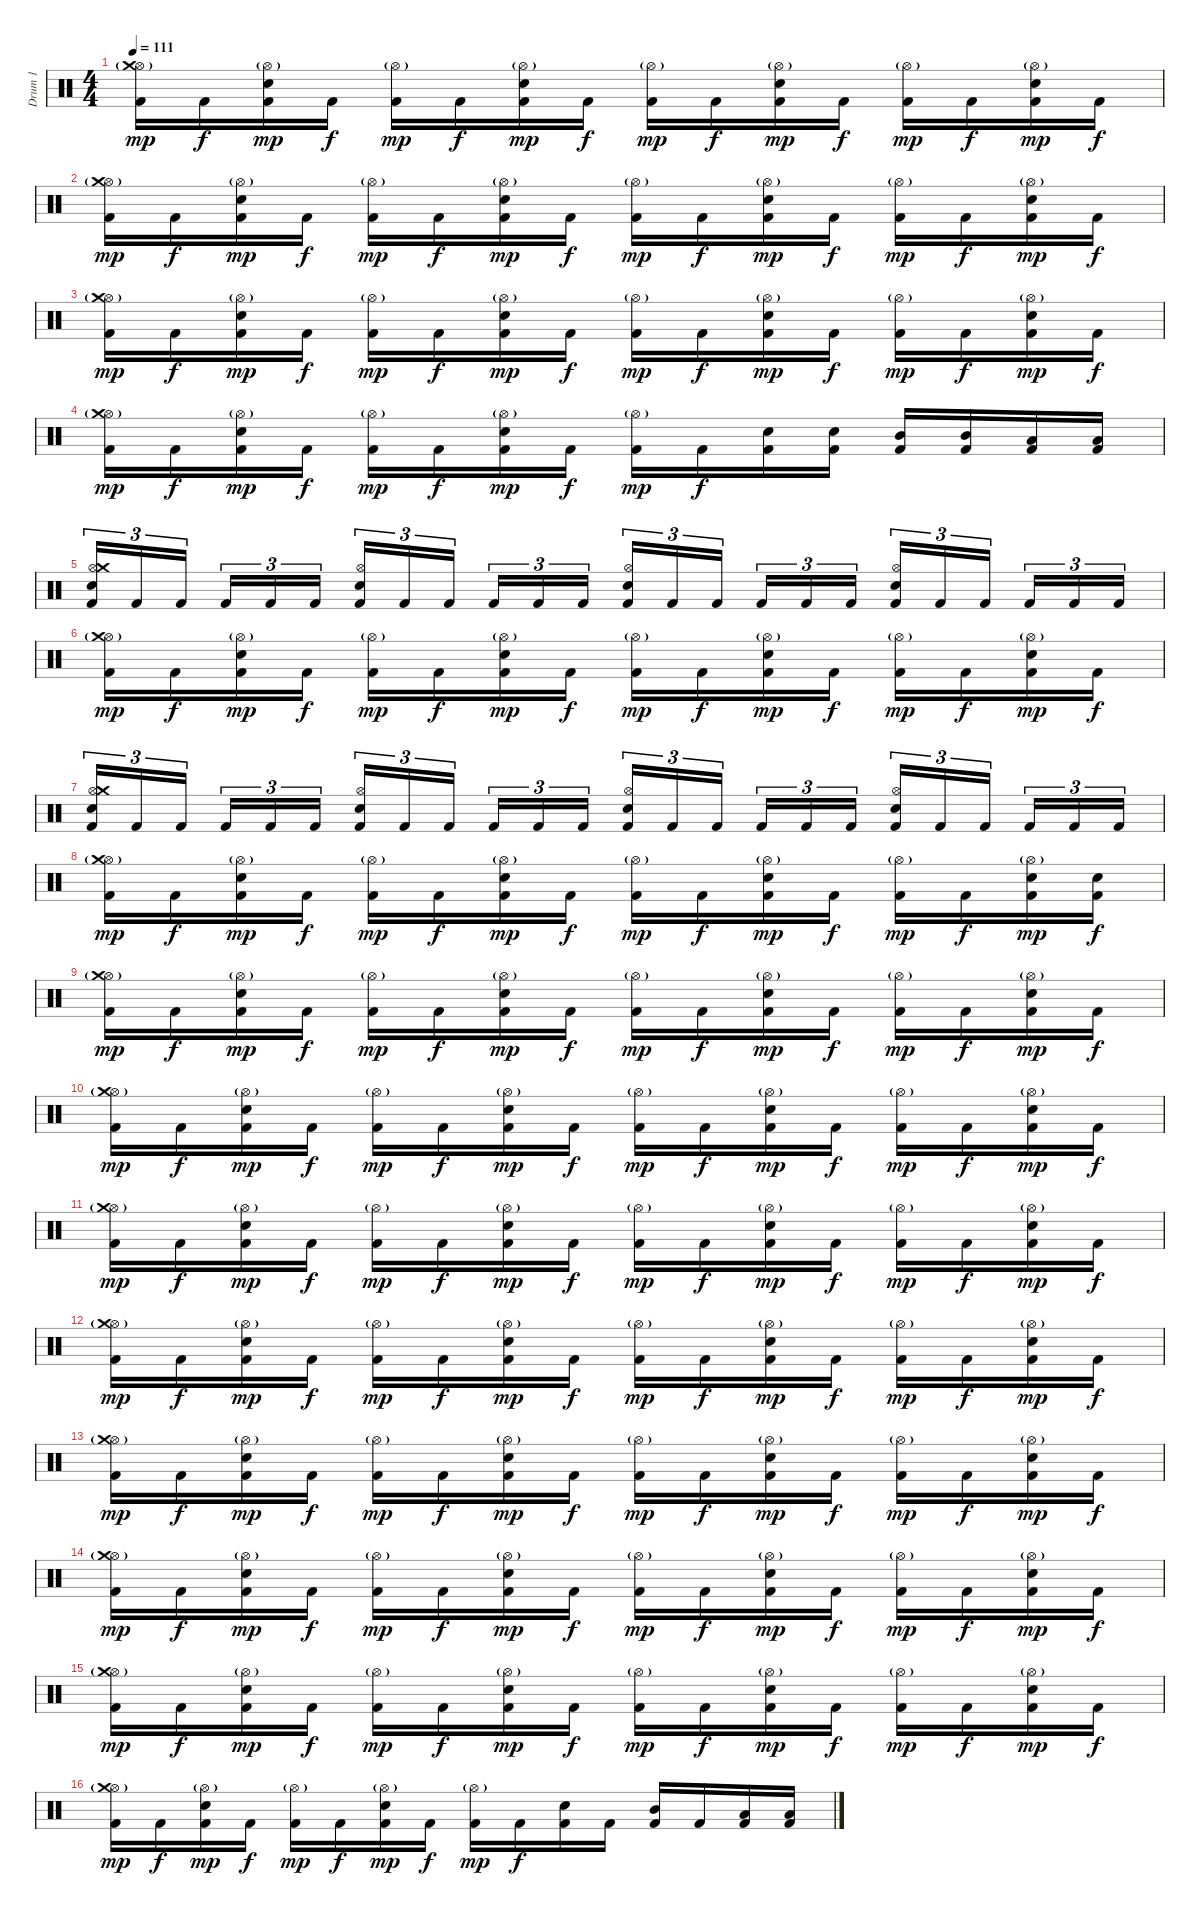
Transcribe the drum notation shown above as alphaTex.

\track ("Drum 1" "Drum 1") {instrument percussion}
\staff {score}
\articulation defaults
\ts (4 4)
\tempo 111
\clef neutral
\ks c
("Kick (hit) 2" "Hi-Hat (open)"{g} "Crash medium (hit)").16{dy mp} "Kick (hit) 2".16{dy f} ("Kick (hit) 2" "Hi-Hat (open)"{g} "Electric Snare (hit)").16{dy mp} "Kick (hit) 2".16{dy f} ("Kick (hit) 2" "Hi-Hat (open)"{g}).16{dy mp} "Kick (hit) 2".16{dy f} ("Kick (hit) 2" "Hi-Hat (open)"{g} "Electric Snare (hit)").16{dy mp} "Kick (hit) 2".16{dy f} ("Kick (hit) 2" "Hi-Hat (open)"{g}).16{dy mp} "Kick (hit) 2".16{dy f} ("Kick (hit) 2" "Hi-Hat (open)"{g} "Electric Snare (hit)").16{dy mp} "Kick (hit) 2".16{dy f} ("Kick (hit) 2" "Hi-Hat (open)"{g}).16{dy mp} "Kick (hit) 2".16{dy f} ("Kick (hit) 2" "Hi-Hat (open)"{g} "Electric Snare (hit)").16{dy mp} "Kick (hit) 2".16{dy f} |
("Kick (hit) 2" "Hi-Hat (open)"{g} "Crash medium (hit)").16{dy mp} "Kick (hit) 2".16{dy f} ("Kick (hit) 2" "Hi-Hat (open)"{g} "Electric Snare (hit)").16{dy mp} "Kick (hit) 2".16{dy f} ("Kick (hit) 2" "Hi-Hat (open)"{g}).16{dy mp} "Kick (hit) 2".16{dy f} ("Kick (hit) 2" "Hi-Hat (open)"{g} "Electric Snare (hit)").16{dy mp} "Kick (hit) 2".16{dy f} ("Kick (hit) 2" "Hi-Hat (open)"{g}).16{dy mp} "Kick (hit) 2".16{dy f} ("Kick (hit) 2" "Hi-Hat (open)"{g} "Electric Snare (hit)").16{dy mp} "Kick (hit) 2".16{dy f} ("Kick (hit) 2" "Hi-Hat (open)"{g}).16{dy mp} "Kick (hit) 2".16{dy f} ("Kick (hit) 2" "Hi-Hat (open)"{g} "Electric Snare (hit)").16{dy mp} "Kick (hit) 2".16{dy f} |
("Kick (hit) 2" "Hi-Hat (open)"{g} "Crash medium (hit)").16{dy mp} "Kick (hit) 2".16{dy f} ("Kick (hit) 2" "Hi-Hat (open)"{g} "Electric Snare (hit)").16{dy mp} "Kick (hit) 2".16{dy f} ("Kick (hit) 2" "Hi-Hat (open)"{g}).16{dy mp} "Kick (hit) 2".16{dy f} ("Kick (hit) 2" "Hi-Hat (open)"{g} "Electric Snare (hit)").16{dy mp} "Kick (hit) 2".16{dy f} ("Kick (hit) 2" "Hi-Hat (open)"{g}).16{dy mp} "Kick (hit) 2".16{dy f} ("Kick (hit) 2" "Hi-Hat (open)"{g} "Electric Snare (hit)").16{dy mp} "Kick (hit) 2".16{dy f} ("Kick (hit) 2" "Hi-Hat (open)"{g}).16{dy mp} "Kick (hit) 2".16{dy f} ("Kick (hit) 2" "Hi-Hat (open)"{g} "Electric Snare (hit)").16{dy mp} "Kick (hit) 2".16{dy f} |
("Kick (hit) 2" "Hi-Hat (open)"{g} "Crash medium (hit)").16{dy mp} "Kick (hit) 2".16{dy f} ("Kick (hit) 2" "Hi-Hat (open)"{g} "Electric Snare (hit)").16{dy mp} "Kick (hit) 2".16{dy f} ("Kick (hit) 2" "Hi-Hat (open)"{g}).16{dy mp} "Kick (hit) 2".16{dy f} ("Kick (hit) 2" "Hi-Hat (open)"{g} "Electric Snare (hit)").16{dy mp} "Kick (hit) 2".16{dy f} ("Kick (hit) 2" "Hi-Hat (open)"{g}).16{dy mp} "Kick (hit) 2".16{dy f} ("Kick (hit) 2" "Electric Snare (hit)").16 ("Kick (hit) 2" "Electric Snare (hit)").16 ("Kick (hit) 2" "Mid Tom (hit)").16 ("Kick (hit) 2" "Mid Tom (hit)").16 ("Kick (hit) 2" "Low Tom (hit)").16 ("Kick (hit) 2" "Low Tom (hit)").16 |
("Kick (hit) 2" "Hi-Hat (open)" "Crash medium (hit)" "Electric Snare (hit)").16{tu (3 2)} "Kick (hit) 2".16{tu (3 2)} "Kick (hit) 2".16{tu (3 2)} "Kick (hit) 2".16{tu (3 2)} "Kick (hit) 2".16{tu (3 2)} "Kick (hit) 2".16{tu (3 2)} ("Kick (hit) 2" "Hi-Hat (open)" "Electric Snare (hit)").16{tu (3 2)} "Kick (hit) 2".16{tu (3 2)} "Kick (hit) 2".16{tu (3 2)} "Kick (hit) 2".16{tu (3 2)} "Kick (hit) 2".16{tu (3 2)} "Kick (hit) 2".16{tu (3 2)} ("Kick (hit) 2" "Hi-Hat (open)" "Electric Snare (hit)").16{tu (3 2)} "Kick (hit) 2".16{tu (3 2)} "Kick (hit) 2".16{tu (3 2)} "Kick (hit) 2".16{tu (3 2)} "Kick (hit) 2".16{tu (3 2)} "Kick (hit) 2".16{tu (3 2)} ("Kick (hit) 2" "Hi-Hat (open)" "Electric Snare (hit)").16{tu (3 2)} "Kick (hit) 2".16{tu (3 2)} "Kick (hit) 2".16{tu (3 2)} "Kick (hit) 2".16{tu (3 2)} "Kick (hit) 2".16{tu (3 2)} "Kick (hit) 2".16{tu (3 2)} |
("Kick (hit) 2" "Hi-Hat (open)"{g} "Crash medium (hit)").16{dy mp} "Kick (hit) 2".16{dy f} ("Kick (hit) 2" "Hi-Hat (open)"{g} "Electric Snare (hit)").16{dy mp} "Kick (hit) 2".16{dy f} ("Kick (hit) 2" "Hi-Hat (open)"{g}).16{dy mp} "Kick (hit) 2".16{dy f} ("Kick (hit) 2" "Hi-Hat (open)"{g} "Electric Snare (hit)").16{dy mp} "Kick (hit) 2".16{dy f} ("Kick (hit) 2" "Hi-Hat (open)"{g}).16{dy mp} "Kick (hit) 2".16{dy f} ("Kick (hit) 2" "Hi-Hat (open)"{g} "Electric Snare (hit)").16{dy mp} "Kick (hit) 2".16{dy f} ("Kick (hit) 2" "Hi-Hat (open)"{g}).16{dy mp} "Kick (hit) 2".16{dy f} ("Kick (hit) 2" "Hi-Hat (open)"{g} "Electric Snare (hit)").16{dy mp} "Kick (hit) 2".16{dy f} |
("Kick (hit) 2" "Hi-Hat (open)" "Crash medium (hit)" "Electric Snare (hit)").16{tu (3 2)} "Kick (hit) 2".16{tu (3 2)} "Kick (hit) 2".16{tu (3 2)} "Kick (hit) 2".16{tu (3 2)} "Kick (hit) 2".16{tu (3 2)} "Kick (hit) 2".16{tu (3 2)} ("Kick (hit) 2" "Hi-Hat (open)" "Electric Snare (hit)").16{tu (3 2)} "Kick (hit) 2".16{tu (3 2)} "Kick (hit) 2".16{tu (3 2)} "Kick (hit) 2".16{tu (3 2)} "Kick (hit) 2".16{tu (3 2)} "Kick (hit) 2".16{tu (3 2)} ("Kick (hit) 2" "Hi-Hat (open)" "Electric Snare (hit)").16{tu (3 2)} "Kick (hit) 2".16{tu (3 2)} "Kick (hit) 2".16{tu (3 2)} "Kick (hit) 2".16{tu (3 2)} "Kick (hit) 2".16{tu (3 2)} "Kick (hit) 2".16{tu (3 2)} ("Kick (hit) 2" "Hi-Hat (open)" "Electric Snare (hit)").16{tu (3 2)} "Kick (hit) 2".16{tu (3 2)} "Kick (hit) 2".16{tu (3 2)} "Kick (hit) 2".16{tu (3 2)} "Kick (hit) 2".16{tu (3 2)} "Kick (hit) 2".16{tu (3 2)} |
("Kick (hit) 2" "Hi-Hat (open)"{g} "Crash medium (hit)").16{dy mp} "Kick (hit) 2".16{dy f} ("Kick (hit) 2" "Hi-Hat (open)"{g} "Electric Snare (hit)").16{dy mp} "Kick (hit) 2".16{dy f} ("Kick (hit) 2" "Hi-Hat (open)"{g}).16{dy mp} "Kick (hit) 2".16{dy f} ("Kick (hit) 2" "Hi-Hat (open)"{g} "Electric Snare (hit)").16{dy mp} "Kick (hit) 2".16{dy f} ("Kick (hit) 2" "Hi-Hat (open)"{g}).16{dy mp} "Kick (hit) 2".16{dy f} ("Kick (hit) 2" "Hi-Hat (open)"{g} "Electric Snare (hit)").16{dy mp} "Kick (hit) 2".16{dy f} ("Kick (hit) 2" "Hi-Hat (open)"{g}).16{dy mp} "Kick (hit) 2".16{dy f} ("Kick (hit) 2" "Hi-Hat (open)"{g} "Electric Snare (hit)").16{dy mp} ("Kick (hit) 2" "Electric Snare (hit)").16{dy f} |
("Kick (hit) 2" "Hi-Hat (open)"{g} "Crash medium (hit)").16{dy mp} "Kick (hit) 2".16{dy f} ("Kick (hit) 2" "Hi-Hat (open)"{g} "Electric Snare (hit)").16{dy mp} "Kick (hit) 2".16{dy f} ("Kick (hit) 2" "Hi-Hat (open)"{g}).16{dy mp} "Kick (hit) 2".16{dy f} ("Kick (hit) 2" "Hi-Hat (open)"{g} "Electric Snare (hit)").16{dy mp} "Kick (hit) 2".16{dy f} ("Kick (hit) 2" "Hi-Hat (open)"{g}).16{dy mp} "Kick (hit) 2".16{dy f} ("Kick (hit) 2" "Hi-Hat (open)"{g} "Electric Snare (hit)").16{dy mp} "Kick (hit) 2".16{dy f} ("Kick (hit) 2" "Hi-Hat (open)"{g}).16{dy mp} "Kick (hit) 2".16{dy f} ("Kick (hit) 2" "Hi-Hat (open)"{g} "Electric Snare (hit)").16{dy mp} "Kick (hit) 2".16{dy f} |
("Kick (hit) 2" "Hi-Hat (open)"{g} "Crash medium (hit)").16{dy mp} "Kick (hit) 2".16{dy f} ("Kick (hit) 2" "Hi-Hat (open)"{g} "Electric Snare (hit)").16{dy mp} "Kick (hit) 2".16{dy f} ("Kick (hit) 2" "Hi-Hat (open)"{g}).16{dy mp} "Kick (hit) 2".16{dy f} ("Kick (hit) 2" "Hi-Hat (open)"{g} "Electric Snare (hit)").16{dy mp} "Kick (hit) 2".16{dy f} ("Kick (hit) 2" "Hi-Hat (open)"{g}).16{dy mp} "Kick (hit) 2".16{dy f} ("Kick (hit) 2" "Hi-Hat (open)"{g} "Electric Snare (hit)").16{dy mp} "Kick (hit) 2".16{dy f} ("Kick (hit) 2" "Hi-Hat (open)"{g}).16{dy mp} "Kick (hit) 2".16{dy f} ("Kick (hit) 2" "Hi-Hat (open)"{g} "Electric Snare (hit)").16{dy mp} "Kick (hit) 2".16{dy f} |
("Kick (hit) 2" "Hi-Hat (open)"{g} "Crash medium (hit)").16{dy mp} "Kick (hit) 2".16{dy f} ("Kick (hit) 2" "Hi-Hat (open)"{g} "Electric Snare (hit)").16{dy mp} "Kick (hit) 2".16{dy f} ("Kick (hit) 2" "Hi-Hat (open)"{g}).16{dy mp} "Kick (hit) 2".16{dy f} ("Kick (hit) 2" "Hi-Hat (open)"{g} "Electric Snare (hit)").16{dy mp} "Kick (hit) 2".16{dy f} ("Kick (hit) 2" "Hi-Hat (open)"{g}).16{dy mp} "Kick (hit) 2".16{dy f} ("Kick (hit) 2" "Hi-Hat (open)"{g} "Electric Snare (hit)").16{dy mp} "Kick (hit) 2".16{dy f} ("Kick (hit) 2" "Hi-Hat (open)"{g}).16{dy mp} "Kick (hit) 2".16{dy f} ("Kick (hit) 2" "Hi-Hat (open)"{g} "Electric Snare (hit)").16{dy mp} "Kick (hit) 2".16{dy f} |
("Kick (hit) 2" "Hi-Hat (open)"{g} "Crash medium (hit)").16{dy mp} "Kick (hit) 2".16{dy f} ("Kick (hit) 2" "Hi-Hat (open)"{g} "Electric Snare (hit)").16{dy mp} "Kick (hit) 2".16{dy f} ("Kick (hit) 2" "Hi-Hat (open)"{g}).16{dy mp} "Kick (hit) 2".16{dy f} ("Kick (hit) 2" "Hi-Hat (open)"{g} "Electric Snare (hit)").16{dy mp} "Kick (hit) 2".16{dy f} ("Kick (hit) 2" "Hi-Hat (open)"{g}).16{dy mp} "Kick (hit) 2".16{dy f} ("Kick (hit) 2" "Hi-Hat (open)"{g} "Electric Snare (hit)").16{dy mp} "Kick (hit) 2".16{dy f} ("Kick (hit) 2" "Hi-Hat (open)"{g}).16{dy mp} "Kick (hit) 2".16{dy f} ("Kick (hit) 2" "Hi-Hat (open)"{g} "Electric Snare (hit)").16{dy mp} "Kick (hit) 2".16{dy f} |
("Kick (hit) 2" "Hi-Hat (open)"{g} "Crash medium (hit)").16{dy mp} "Kick (hit) 2".16{dy f} ("Kick (hit) 2" "Hi-Hat (open)"{g} "Electric Snare (hit)").16{dy mp} "Kick (hit) 2".16{dy f} ("Kick (hit) 2" "Hi-Hat (open)"{g}).16{dy mp} "Kick (hit) 2".16{dy f} ("Kick (hit) 2" "Hi-Hat (open)"{g} "Electric Snare (hit)").16{dy mp} "Kick (hit) 2".16{dy f} ("Kick (hit) 2" "Hi-Hat (open)"{g}).16{dy mp} "Kick (hit) 2".16{dy f} ("Kick (hit) 2" "Hi-Hat (open)"{g} "Electric Snare (hit)").16{dy mp} "Kick (hit) 2".16{dy f} ("Kick (hit) 2" "Hi-Hat (open)"{g}).16{dy mp} "Kick (hit) 2".16{dy f} ("Kick (hit) 2" "Hi-Hat (open)"{g} "Electric Snare (hit)").16{dy mp} "Kick (hit) 2".16{dy f} |
("Kick (hit) 2" "Hi-Hat (open)"{g} "Crash medium (hit)").16{dy mp} "Kick (hit) 2".16{dy f} ("Kick (hit) 2" "Hi-Hat (open)"{g} "Electric Snare (hit)").16{dy mp} "Kick (hit) 2".16{dy f} ("Kick (hit) 2" "Hi-Hat (open)"{g}).16{dy mp} "Kick (hit) 2".16{dy f} ("Kick (hit) 2" "Hi-Hat (open)"{g} "Electric Snare (hit)").16{dy mp} "Kick (hit) 2".16{dy f} ("Kick (hit) 2" "Hi-Hat (open)"{g}).16{dy mp} "Kick (hit) 2".16{dy f} ("Kick (hit) 2" "Hi-Hat (open)"{g} "Electric Snare (hit)").16{dy mp} "Kick (hit) 2".16{dy f} ("Kick (hit) 2" "Hi-Hat (open)"{g}).16{dy mp} "Kick (hit) 2".16{dy f} ("Kick (hit) 2" "Hi-Hat (open)"{g} "Electric Snare (hit)").16{dy mp} "Kick (hit) 2".16{dy f} |
("Kick (hit) 2" "Hi-Hat (open)"{g} "Crash medium (hit)").16{dy mp} "Kick (hit) 2".16{dy f} ("Kick (hit) 2" "Hi-Hat (open)"{g} "Electric Snare (hit)").16{dy mp} "Kick (hit) 2".16{dy f} ("Kick (hit) 2" "Hi-Hat (open)"{g}).16{dy mp} "Kick (hit) 2".16{dy f} ("Kick (hit) 2" "Hi-Hat (open)"{g} "Electric Snare (hit)").16{dy mp} "Kick (hit) 2".16{dy f} ("Kick (hit) 2" "Hi-Hat (open)"{g}).16{dy mp} "Kick (hit) 2".16{dy f} ("Kick (hit) 2" "Hi-Hat (open)"{g} "Electric Snare (hit)").16{dy mp} "Kick (hit) 2".16{dy f} ("Kick (hit) 2" "Hi-Hat (open)"{g}).16{dy mp} "Kick (hit) 2".16{dy f} ("Kick (hit) 2" "Hi-Hat (open)"{g} "Electric Snare (hit)").16{dy mp} "Kick (hit) 2".16{dy f} |
("Kick (hit) 2" "Hi-Hat (open)"{g} "Crash medium (hit)").16{dy mp} "Kick (hit) 2".16{dy f} ("Kick (hit) 2" "Hi-Hat (open)"{g} "Electric Snare (hit)").16{dy mp} "Kick (hit) 2".16{dy f} ("Kick (hit) 2" "Hi-Hat (open)"{g}).16{dy mp} "Kick (hit) 2".16{dy f} ("Kick (hit) 2" "Hi-Hat (open)"{g} "Electric Snare (hit)").16{dy mp} "Kick (hit) 2".16{dy f} ("Kick (hit) 2" "Hi-Hat (open)"{g}).16{dy mp} "Kick (hit) 2".16{dy f} ("Kick (hit) 2" "Electric Snare (hit)").16 "Kick (hit) 2".16 ("Kick (hit) 2" "Mid Tom (hit)").16 "Kick (hit) 2".16 ("Kick (hit) 2" "Low Tom (hit)").16 ("Kick (hit) 2" "Low Tom (hit)").16
